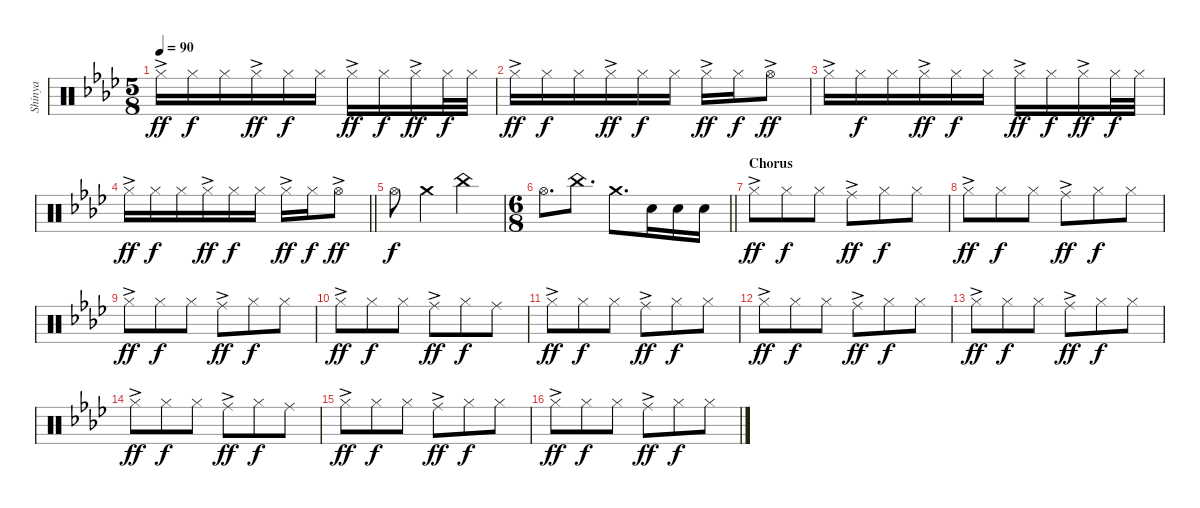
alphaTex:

\track ("Shinya" "Shinya") {instrument percussion}
\staff {score}
\articulation defaults
\ts (5 8)
\tempo 90
\clef neutral
\ks fminor "Hi-Hat (closed)"{ac}.16{dy ff} "Hi-Hat (closed)".16{dy f} "Hi-Hat (closed)".16 "Hi-Hat (closed)"{ac}.16{dy ff} "Hi-Hat (closed)".16{dy f} "Hi-Hat (closed)".16 "Hi-Hat (closed)"{ac}.16{dy ff} "Hi-Hat (closed)".16{dy f} "Hi-Hat (closed)"{ac}.16{dy ff} "Hi-Hat (closed)".32{dy f} "Hi-Hat (closed)".32
|
"Hi-Hat (closed)"{ac}.16{dy ff} "Hi-Hat (closed)".16{dy f} "Hi-Hat (closed)".16 "Hi-Hat (closed)"{ac}.16{dy ff} "Hi-Hat (closed)".16{dy f} "Hi-Hat (closed)".16 "Hi-Hat (closed)"{ac}.16{dy ff} "Hi-Hat (closed)".16{dy f} "Hi-Hat (open)"{ac}.8{dy ff} |
"Hi-Hat (closed)"{ac}.16 "Hi-Hat (closed)".16{dy f} "Hi-Hat (closed)".16 "Hi-Hat (closed)"{ac}.16{dy ff} "Hi-Hat (closed)".16{dy f} "Hi-Hat (closed)".16 "Hi-Hat (closed)"{ac}.16{dy ff} "Hi-Hat (closed)".16{dy f} "Hi-Hat (closed)"{ac}.16{dy ff} "Hi-Hat (closed)".32{dy f} "Hi-Hat (closed)".32 |
\barLineRight lightlight "Hi-Hat (closed)"{ac}.16{dy ff} "Hi-Hat (closed)".16{dy f} "Hi-Hat (closed)".16 "Hi-Hat (closed)"{ac}.16{dy ff} "Hi-Hat (closed)".16{dy f} "Hi-Hat (closed)".16 "Hi-Hat (closed)"{ac}.16{dy ff} "Hi-Hat (closed)".16{dy f} "Hi-Hat (open)"{ac}.8{dy ff}
|
"Hi-Hat (open)".8{dy f} "Crash medium (hit)".4 "China (hit)".4 |
\ts (6 8)
\barLineRight lightlight "Hi-Hat (open)".8{d} "China (hit)".8{d} "Crash medium (hit)".8{d} "Snare (hit) 2".16 "Snare (hit) 2".16 "Snare (hit) 2".16
|
\section ("" "Chorus")
"Hi-Hat (closed)"{ac}.8{dy ff} "Hi-Hat (closed)".8{dy f} "Hi-Hat (closed)".8 "Ride (middle)"{ac}.8{dy ff} "Hi-Hat (closed)".8{dy f} "Hi-Hat (closed)".8 |
"Hi-Hat (closed)"{ac}.8{dy ff} "Hi-Hat (closed)".8{dy f} "Hi-Hat (closed)".8 "Ride (middle)"{ac}.8{dy ff} "Hi-Hat (closed)".8{dy f} "Hi-Hat (closed)".8 |
"Hi-Hat (closed)"{ac}.8{dy ff} "Hi-Hat (closed)".8{dy f} "Hi-Hat (closed)".8 "Ride (middle)"{ac}.8{dy ff} "Hi-Hat (closed)".8{dy f} "Hi-Hat (closed)".8 |
"Hi-Hat (closed)"{ac}.8{dy ff} "Hi-Hat (closed)".8{dy f} "Hi-Hat (closed)".8 "Ride (middle)"{ac}.8{dy ff} "Hi-Hat (closed)".8{dy f} "Ride (middle)".8 |
"Hi-Hat (closed)"{ac}.8{dy ff} "Hi-Hat (closed)".8{dy f} "Hi-Hat (closed)".8 "Ride (middle)"{ac}.8{dy ff} "Hi-Hat (closed)".8{dy f} "Hi-Hat (closed)".8 |
"Hi-Hat (closed)"{ac}.8{dy ff} "Hi-Hat (closed)".8{dy f} "Hi-Hat (closed)".8 "Ride (middle)"{ac}.8{dy ff} "Hi-Hat (closed)".8{dy f} "Hi-Hat (closed)".8 |
"Hi-Hat (closed)"{ac}.8{dy ff} "Hi-Hat (closed)".8{dy f} "Hi-Hat (closed)".8 "Ride (middle)"{ac}.8{dy ff} "Hi-Hat (closed)".8{dy f} "Hi-Hat (closed)".8 |
"Hi-Hat (closed)"{ac}.8{dy ff} "Hi-Hat (closed)".8{dy f} "Hi-Hat (closed)".8 "Ride (middle)"{ac}.8{dy ff} "Hi-Hat (closed)".8{dy f} "Ride (middle)".8 |
"Hi-Hat (closed)"{ac}.8{dy ff} "Hi-Hat (closed)".8{dy f} "Hi-Hat (closed)".8 "Ride (middle)"{ac}.8{dy ff} "Hi-Hat (closed)".8{dy f} "Hi-Hat (closed)".8 |
"Hi-Hat (closed)"{ac}.8{dy ff} "Hi-Hat (closed)".8{dy f} "Hi-Hat (closed)".8 "Ride (middle)"{ac}.8{dy ff} "Hi-Hat (closed)".8{dy f} "Hi-Hat (closed)".8
